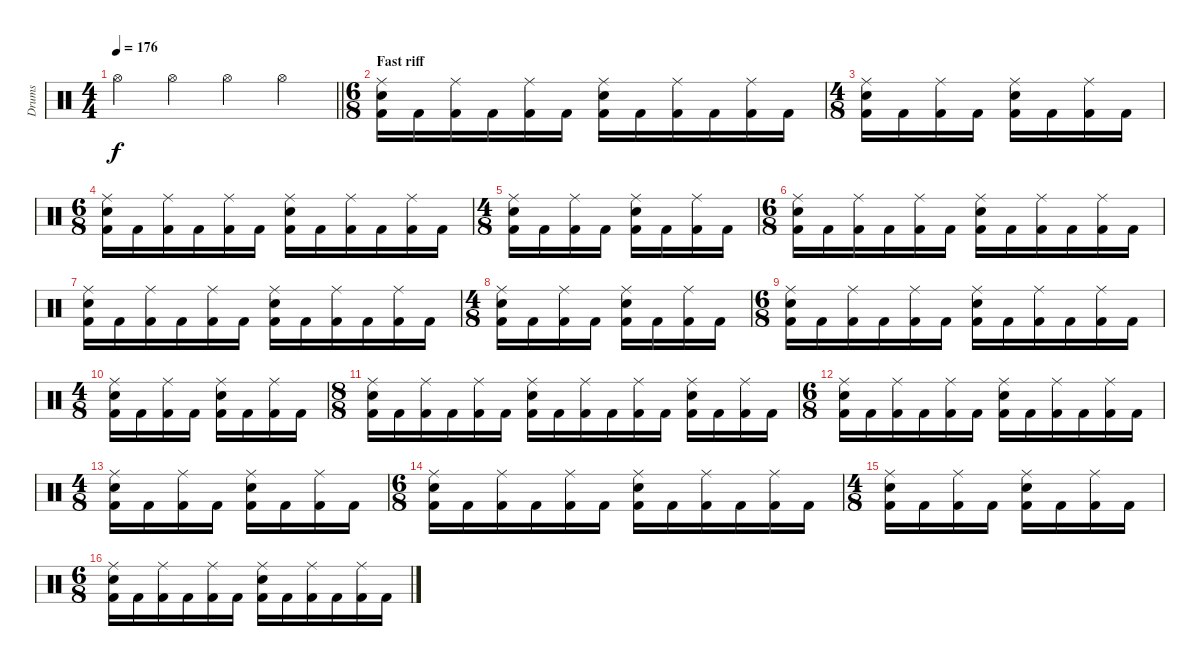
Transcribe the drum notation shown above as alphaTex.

\track ("Drums" "Drums") {instrument percussion}
\staff {score}
\articulation defaults
\ts (4 4)
\tempo 176
\clef neutral
\barLineRight lightlight
\ks c "Hi-Hat (open)".4{dy f} "Hi-Hat (open)".4 "Hi-Hat (open)".4 "Hi-Hat (open)".4
|
\ts (6 8)
\section ("" "Fast riff")
("Ride (middle)" "Snare (hit) 2" "Kick (hit) 2").16 "Kick (hit) 2".16 ("Ride (middle)" "Kick (hit) 2").16 "Kick (hit) 2".16 ("Ride (middle)" "Kick (hit) 2").16 "Kick (hit) 2".16 ("Ride (middle)" "Snare (hit) 2" "Kick (hit) 2").16 "Kick (hit) 2".16 ("Ride (middle)" "Kick (hit) 2").16 "Kick (hit) 2".16 ("Ride (middle)" "Kick (hit) 2").16 "Kick (hit) 2".16 |
\ts (4 8)
("Ride (middle)" "Snare (hit) 2" "Kick (hit) 2").16 "Kick (hit) 2".16 ("Ride (middle)" "Kick (hit) 2").16 "Kick (hit) 2".16 ("Ride (middle)" "Snare (hit) 2" "Kick (hit) 2").16 "Kick (hit) 2".16 ("Ride (middle)" "Kick (hit) 2").16 "Kick (hit) 2".16 |
\ts (6 8)
("Ride (middle)" "Snare (hit) 2" "Kick (hit) 2").16 "Kick (hit) 2".16 ("Ride (middle)" "Kick (hit) 2").16 "Kick (hit) 2".16 ("Ride (middle)" "Kick (hit) 2").16 "Kick (hit) 2".16 ("Ride (middle)" "Snare (hit) 2" "Kick (hit) 2").16 "Kick (hit) 2".16 ("Ride (middle)" "Kick (hit) 2").16 "Kick (hit) 2".16 ("Ride (middle)" "Kick (hit) 2").16 "Kick (hit) 2".16 |
\ts (4 8)
("Ride (middle)" "Snare (hit) 2" "Kick (hit) 2").16 "Kick (hit) 2".16 ("Ride (middle)" "Kick (hit) 2").16 "Kick (hit) 2".16 ("Ride (middle)" "Snare (hit) 2" "Kick (hit) 2").16 "Kick (hit) 2".16 ("Ride (middle)" "Kick (hit) 2").16 "Kick (hit) 2".16 |
\ts (6 8)
("Ride (middle)" "Snare (hit) 2" "Kick (hit) 2").16 "Kick (hit) 2".16 ("Ride (middle)" "Kick (hit) 2").16 "Kick (hit) 2".16 ("Ride (middle)" "Kick (hit) 2").16 "Kick (hit) 2".16 ("Ride (middle)" "Snare (hit) 2" "Kick (hit) 2").16 "Kick (hit) 2".16 ("Ride (middle)" "Kick (hit) 2").16 "Kick (hit) 2".16 ("Ride (middle)" "Kick (hit) 2").16 "Kick (hit) 2".16 |
("Ride (middle)" "Snare (hit) 2" "Kick (hit) 2").16 "Kick (hit) 2".16 ("Ride (middle)" "Kick (hit) 2").16 "Kick (hit) 2".16 ("Ride (middle)" "Kick (hit) 2").16 "Kick (hit) 2".16 ("Ride (middle)" "Snare (hit) 2" "Kick (hit) 2").16 "Kick (hit) 2".16 ("Ride (middle)" "Kick (hit) 2").16 "Kick (hit) 2".16 ("Ride (middle)" "Kick (hit) 2").16 "Kick (hit) 2".16 |
\ts (4 8)
("Ride (middle)" "Snare (hit) 2" "Kick (hit) 2").16 "Kick (hit) 2".16 ("Ride (middle)" "Kick (hit) 2").16 "Kick (hit) 2".16 ("Ride (middle)" "Snare (hit) 2" "Kick (hit) 2").16 "Kick (hit) 2".16 ("Ride (middle)" "Kick (hit) 2").16 "Kick (hit) 2".16 |
\ts (6 8)
("Ride (middle)" "Snare (hit) 2" "Kick (hit) 2").16 "Kick (hit) 2".16 ("Ride (middle)" "Kick (hit) 2").16 "Kick (hit) 2".16 ("Ride (middle)" "Kick (hit) 2").16 "Kick (hit) 2".16 ("Ride (middle)" "Snare (hit) 2" "Kick (hit) 2").16 "Kick (hit) 2".16 ("Ride (middle)" "Kick (hit) 2").16 "Kick (hit) 2".16 ("Ride (middle)" "Kick (hit) 2").16 "Kick (hit) 2".16 |
\ts (4 8)
("Ride (middle)" "Snare (hit) 2" "Kick (hit) 2").16 "Kick (hit) 2".16 ("Ride (middle)" "Kick (hit) 2").16 "Kick (hit) 2".16 ("Ride (middle)" "Snare (hit) 2" "Kick (hit) 2").16 "Kick (hit) 2".16 ("Ride (middle)" "Kick (hit) 2").16 "Kick (hit) 2".16 |
\ts (8 8)
("Ride (middle)" "Snare (hit) 2" "Kick (hit) 2").16 "Kick (hit) 2".16 ("Ride (middle)" "Kick (hit) 2").16 "Kick (hit) 2".16 ("Ride (middle)" "Kick (hit) 2").16 "Kick (hit) 2".16 ("Ride (middle)" "Snare (hit) 2" "Kick (hit) 2").16 "Kick (hit) 2".16 ("Ride (middle)" "Kick (hit) 2").16 "Kick (hit) 2".16 ("Ride (middle)" "Kick (hit) 2").16 "Kick (hit) 2".16 ("Ride (middle)" "Snare (hit) 2" "Kick (hit) 2").16 "Kick (hit) 2".16 ("Ride (middle)" "Kick (hit) 2").16 "Kick (hit) 2".16 |
\ts (6 8)
("Ride (middle)" "Snare (hit) 2" "Kick (hit) 2").16 "Kick (hit) 2".16 ("Ride (middle)" "Kick (hit) 2").16 "Kick (hit) 2".16 ("Ride (middle)" "Kick (hit) 2").16 "Kick (hit) 2".16 ("Ride (middle)" "Snare (hit) 2" "Kick (hit) 2").16 "Kick (hit) 2".16 ("Ride (middle)" "Kick (hit) 2").16 "Kick (hit) 2".16 ("Ride (middle)" "Kick (hit) 2").16 "Kick (hit) 2".16 |
\ts (4 8)
("Ride (middle)" "Snare (hit) 2" "Kick (hit) 2").16 "Kick (hit) 2".16 ("Ride (middle)" "Kick (hit) 2").16 "Kick (hit) 2".16 ("Ride (middle)" "Snare (hit) 2" "Kick (hit) 2").16 "Kick (hit) 2".16 ("Ride (middle)" "Kick (hit) 2").16 "Kick (hit) 2".16 |
\ts (6 8)
("Ride (middle)" "Snare (hit) 2" "Kick (hit) 2").16 "Kick (hit) 2".16 ("Ride (middle)" "Kick (hit) 2").16 "Kick (hit) 2".16 ("Ride (middle)" "Kick (hit) 2").16 "Kick (hit) 2".16 ("Ride (middle)" "Snare (hit) 2" "Kick (hit) 2").16 "Kick (hit) 2".16 ("Ride (middle)" "Kick (hit) 2").16 "Kick (hit) 2".16 ("Ride (middle)" "Kick (hit) 2").16 "Kick (hit) 2".16 |
\ts (4 8)
("Ride (middle)" "Snare (hit) 2" "Kick (hit) 2").16 "Kick (hit) 2".16 ("Ride (middle)" "Kick (hit) 2").16 "Kick (hit) 2".16 ("Ride (middle)" "Snare (hit) 2" "Kick (hit) 2").16 "Kick (hit) 2".16 ("Ride (middle)" "Kick (hit) 2").16 "Kick (hit) 2".16 |
\ts (6 8)
("Ride (middle)" "Snare (hit) 2" "Kick (hit) 2").16 "Kick (hit) 2".16 ("Ride (middle)" "Kick (hit) 2").16 "Kick (hit) 2".16 ("Ride (middle)" "Kick (hit) 2").16 "Kick (hit) 2".16 ("Ride (middle)" "Snare (hit) 2" "Kick (hit) 2").16 "Kick (hit) 2".16 ("Ride (middle)" "Kick (hit) 2").16 "Kick (hit) 2".16 ("Ride (middle)" "Kick (hit) 2").16 "Kick (hit) 2".16
